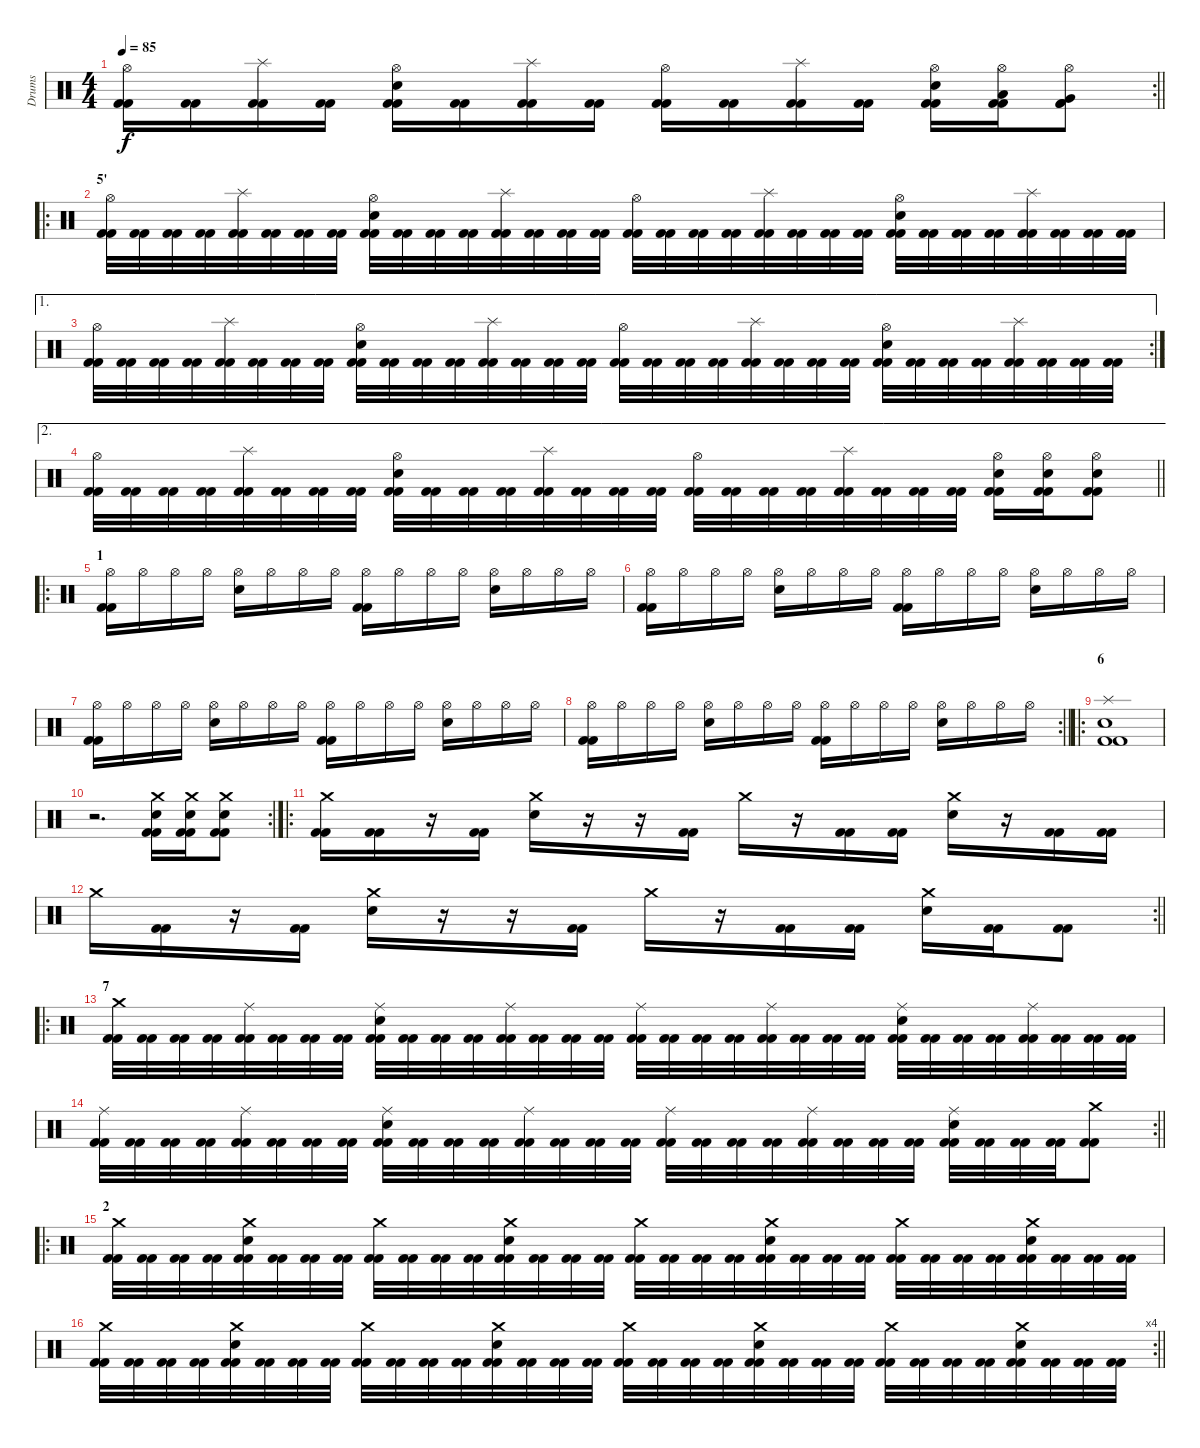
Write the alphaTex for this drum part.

\track ("Drums" "Drums") {instrument percussion}
\staff {score}
\articulation defaults
\rc 2
\ts (4 4)
\tempo 85
\clef neutral
\barLineRight lightlight
\ks c
("Hi-Hat (open)" "Kick (hit) 2" "Kick (hit) 2").16{dy f} ("Kick (hit) 2" "Kick (hit) 2").16 ("Splash (hit)" "Kick (hit) 2" "Kick (hit) 2").16 ("Kick (hit) 2" "Kick (hit) 2").16 ("Hi-Hat (open)" "Snare (hit) 2" "Kick (hit) 2" "Kick (hit) 2").16 ("Kick (hit) 2" "Kick (hit) 2").16 ("Splash (hit)" "Kick (hit) 2" "Kick (hit) 2").16 ("Kick (hit) 2" "Kick (hit) 2").16 ("Hi-Hat (open)" "Kick (hit) 2" "Kick (hit) 2").16 ("Kick (hit) 2" "Kick (hit) 2").16 ("Splash (hit)" "Kick (hit) 2" "Kick (hit) 2").16 ("Kick (hit) 2" "Kick (hit) 2").16 ("Hi-Hat (open)" "Snare (hit) 2" "Kick (hit) 2" "Kick (hit) 2").16 ("Hi-Hat (open)" "Low Tom (hit)" "Kick (hit) 2" "Kick (hit) 2").16 ("Hi-Hat (open)" "Very Low Tom (hit)" "Kick (hit) 2" "Kick (hit) 2").8 |
\ro
\section ("" "5'")
("Hi-Hat (open)" "Kick (hit) 2" "Kick (hit) 2").32 ("Kick (hit) 2" "Kick (hit) 2").32 ("Kick (hit) 2" "Kick (hit) 2").32 ("Kick (hit) 2" "Kick (hit) 2").32 ("Splash (hit)" "Kick (hit) 2" "Kick (hit) 2").32 ("Kick (hit) 2" "Kick (hit) 2").32 ("Kick (hit) 2" "Kick (hit) 2").32 ("Kick (hit) 2" "Kick (hit) 2").32 ("Snare (hit) 2" "Hi-Hat (open)" "Kick (hit) 2" "Kick (hit) 2").32 ("Kick (hit) 2" "Kick (hit) 2").32 ("Kick (hit) 2" "Kick (hit) 2").32 ("Kick (hit) 2" "Kick (hit) 2").32 ("Splash (hit)" "Kick (hit) 2" "Kick (hit) 2").32 ("Kick (hit) 2" "Kick (hit) 2").32 ("Kick (hit) 2" "Kick (hit) 2").32 ("Kick (hit) 2" "Kick (hit) 2").32 ("Hi-Hat (open)" "Kick (hit) 2" "Kick (hit) 2").32 ("Kick (hit) 2" "Kick (hit) 2").32 ("Kick (hit) 2" "Kick (hit) 2").32 ("Kick (hit) 2" "Kick (hit) 2").32 ("Splash (hit)" "Kick (hit) 2" "Kick (hit) 2").32 ("Kick (hit) 2" "Kick (hit) 2").32 ("Kick (hit) 2" "Kick (hit) 2").32 ("Kick (hit) 2" "Kick (hit) 2").32 ("Snare (hit) 2" "Hi-Hat (open)" "Kick (hit) 2" "Kick (hit) 2").32 ("Kick (hit) 2" "Kick (hit) 2").32 ("Kick (hit) 2" "Kick (hit) 2").32 ("Kick (hit) 2" "Kick (hit) 2").32 ("Splash (hit)" "Kick (hit) 2" "Kick (hit) 2").32 ("Kick (hit) 2" "Kick (hit) 2").32 ("Kick (hit) 2" "Kick (hit) 2").32 ("Kick (hit) 2" "Kick (hit) 2").32 |
\ae 1
\rc 2
("Hi-Hat (open)" "Kick (hit) 2" "Kick (hit) 2").32 ("Kick (hit) 2" "Kick (hit) 2").32 ("Kick (hit) 2" "Kick (hit) 2").32 ("Kick (hit) 2" "Kick (hit) 2").32 ("Splash (hit)" "Kick (hit) 2" "Kick (hit) 2").32 ("Kick (hit) 2" "Kick (hit) 2").32 ("Kick (hit) 2" "Kick (hit) 2").32 ("Kick (hit) 2" "Kick (hit) 2").32 ("Snare (hit) 2" "Hi-Hat (open)" "Kick (hit) 2" "Kick (hit) 2").32 ("Kick (hit) 2" "Kick (hit) 2").32 ("Kick (hit) 2" "Kick (hit) 2").32 ("Kick (hit) 2" "Kick (hit) 2").32 ("Splash (hit)" "Kick (hit) 2" "Kick (hit) 2").32 ("Kick (hit) 2" "Kick (hit) 2").32 ("Kick (hit) 2" "Kick (hit) 2").32 ("Kick (hit) 2" "Kick (hit) 2").32 ("Hi-Hat (open)" "Kick (hit) 2" "Kick (hit) 2").32 ("Kick (hit) 2" "Kick (hit) 2").32 ("Kick (hit) 2" "Kick (hit) 2").32 ("Kick (hit) 2" "Kick (hit) 2").32 ("Splash (hit)" "Kick (hit) 2" "Kick (hit) 2").32 ("Kick (hit) 2" "Kick (hit) 2").32 ("Kick (hit) 2" "Kick (hit) 2").32 ("Kick (hit) 2" "Kick (hit) 2").32 ("Snare (hit) 2" "Hi-Hat (open)" "Kick (hit) 2" "Kick (hit) 2").32 ("Kick (hit) 2" "Kick (hit) 2").32 ("Kick (hit) 2" "Kick (hit) 2").32 ("Kick (hit) 2" "Kick (hit) 2").32 ("Splash (hit)" "Kick (hit) 2" "Kick (hit) 2").32 ("Kick (hit) 2" "Kick (hit) 2").32 ("Kick (hit) 2" "Kick (hit) 2").32 ("Kick (hit) 2" "Kick (hit) 2").32 |
\ae 2
\barLineRight lightlight
("Hi-Hat (open)" "Kick (hit) 2" "Kick (hit) 2").32 ("Kick (hit) 2" "Kick (hit) 2").32 ("Kick (hit) 2" "Kick (hit) 2").32 ("Kick (hit) 2" "Kick (hit) 2").32 ("Splash (hit)" "Kick (hit) 2" "Kick (hit) 2").32 ("Kick (hit) 2" "Kick (hit) 2").32 ("Kick (hit) 2" "Kick (hit) 2").32 ("Kick (hit) 2" "Kick (hit) 2").32 ("Snare (hit) 2" "Hi-Hat (open)" "Kick (hit) 2" "Kick (hit) 2").32 ("Kick (hit) 2" "Kick (hit) 2").32 ("Kick (hit) 2" "Kick (hit) 2").32 ("Kick (hit) 2" "Kick (hit) 2").32 ("Splash (hit)" "Kick (hit) 2" "Kick (hit) 2").32 ("Kick (hit) 2" "Kick (hit) 2").32 ("Kick (hit) 2" "Kick (hit) 2").32 ("Kick (hit) 2" "Kick (hit) 2").32 ("Hi-Hat (open)" "Kick (hit) 2" "Kick (hit) 2").32 ("Kick (hit) 2" "Kick (hit) 2").32 ("Kick (hit) 2" "Kick (hit) 2").32 ("Kick (hit) 2" "Kick (hit) 2").32 ("Splash (hit)" "Kick (hit) 2" "Kick (hit) 2").32 ("Kick (hit) 2" "Kick (hit) 2").32 ("Kick (hit) 2" "Kick (hit) 2").32 ("Kick (hit) 2" "Kick (hit) 2").32 ("Snare (hit) 2" "Hi-Hat (open)" "Kick (hit) 2" "Kick (hit) 2").16 ("Snare (hit) 2" "Hi-Hat (open)" "Kick (hit) 2" "Kick (hit) 2").16 ("Snare (hit) 2" "Hi-Hat (open)" "Kick (hit) 2" "Kick (hit) 2").8 |
\ro
\section ("" "1")
("Kick (hit) 2" "Kick (hit) 2" "Hi-Hat (open)").16 "Hi-Hat (open)".16 "Hi-Hat (open)".16 "Hi-Hat (open)".16 ("Snare (hit) 2" "Hi-Hat (open)").16 "Hi-Hat (open)".16 "Hi-Hat (open)".16 "Hi-Hat (open)".16 ("Kick (hit) 2" "Kick (hit) 2" "Hi-Hat (open)").16 "Hi-Hat (open)".16 "Hi-Hat (open)".16 "Hi-Hat (open)".16 ("Snare (hit) 2" "Hi-Hat (open)").16 "Hi-Hat (open)".16 "Hi-Hat (open)".16 "Hi-Hat (open)".16 |
("Kick (hit) 2" "Kick (hit) 2" "Hi-Hat (open)").16 "Hi-Hat (open)".16 "Hi-Hat (open)".16 "Hi-Hat (open)".16 ("Snare (hit) 2" "Hi-Hat (open)").16 "Hi-Hat (open)".16 "Hi-Hat (open)".16 "Hi-Hat (open)".16 ("Kick (hit) 2" "Kick (hit) 2" "Hi-Hat (open)").16 "Hi-Hat (open)".16 "Hi-Hat (open)".16 "Hi-Hat (open)".16 ("Snare (hit) 2" "Hi-Hat (open)").16 "Hi-Hat (open)".16 "Hi-Hat (open)".16 "Hi-Hat (open)".16 |
("Kick (hit) 2" "Kick (hit) 2" "Hi-Hat (open)").16 "Hi-Hat (open)".16 "Hi-Hat (open)".16 "Hi-Hat (open)".16 ("Snare (hit) 2" "Hi-Hat (open)").16 "Hi-Hat (open)".16 "Hi-Hat (open)".16 "Hi-Hat (open)".16 ("Kick (hit) 2" "Kick (hit) 2" "Hi-Hat (open)").16 "Hi-Hat (open)".16 "Hi-Hat (open)".16 "Hi-Hat (open)".16 ("Snare (hit) 2" "Hi-Hat (open)").16 "Hi-Hat (open)".16 "Hi-Hat (open)".16 "Hi-Hat (open)".16 |
\rc 2
\barLineRight lightlight
("Kick (hit) 2" "Kick (hit) 2" "Hi-Hat (open)").16 "Hi-Hat (open)".16 "Hi-Hat (open)".16 "Hi-Hat (open)".16 ("Snare (hit) 2" "Hi-Hat (open)").16 "Hi-Hat (open)".16 "Hi-Hat (open)".16 "Hi-Hat (open)".16 ("Kick (hit) 2" "Kick (hit) 2" "Hi-Hat (open)").16 "Hi-Hat (open)".16 "Hi-Hat (open)".16 "Hi-Hat (open)".16 ("Snare (hit) 2" "Hi-Hat (open)").16 "Hi-Hat (open)".16 "Hi-Hat (open)".16 "Hi-Hat (open)".16 |
\ro
\section ("" "6")
("Splash (hit)" "Snare (hit) 2" "Kick (hit) 2" "Kick (hit) 2").1 |
\rc 2
r.2{d} ("Crash medium (hit)" "Snare (hit) 2" "Kick (hit) 2" "Kick (hit) 2").16 ("Crash medium (hit)" "Snare (hit) 2" "Kick (hit) 2" "Kick (hit) 2").16 ("Crash medium (hit)" "Snare (hit) 2" "Kick (hit) 2" "Kick (hit) 2").8 |
\ro
("Crash medium (hit)" "Kick (hit) 2" "Kick (hit) 2").16 ("Kick (hit) 2" "Kick (hit) 2").16 r.16 ("Kick (hit) 2" "Kick (hit) 2").16 ("Crash medium (hit)" "Snare (hit) 2").16 r.16 r.16 ("Kick (hit) 2" "Kick (hit) 2").16 "Crash medium (hit)".16 r.16 ("Kick (hit) 2" "Kick (hit) 2").16 ("Kick (hit) 2" "Kick (hit) 2").16 ("Crash medium (hit)" "Snare (hit) 2").16 r.16 ("Kick (hit) 2" "Kick (hit) 2").16 ("Kick (hit) 2" "Kick (hit) 2").16 |
\rc 2
\barLineRight lightlight "Crash medium (hit)".16
("Kick (hit) 2" "Kick (hit) 2").16 r.16 ("Kick (hit) 2" "Kick (hit) 2").16 ("Crash medium (hit)" "Snare (hit) 2").16 r.16 r.16 ("Kick (hit) 2" "Kick (hit) 2").16 "Crash medium (hit)".16 r.16 ("Kick (hit) 2" "Kick (hit) 2").16 ("Kick (hit) 2" "Kick (hit) 2").16 ("Crash medium (hit)" "Snare (hit) 2").16 ("Kick (hit) 2" "Kick (hit) 2").16 ("Kick (hit) 2" "Kick (hit) 2").8 |
\ro
\section ("" "7")
("Crash medium (hit)" "Kick (hit) 2" "Kick (hit) 2").32 ("Kick (hit) 2" "Kick (hit) 2").32 ("Kick (hit) 2" "Kick (hit) 2").32 ("Kick (hit) 2" "Kick (hit) 2").32 ("Ride (middle)" "Kick (hit) 2" "Kick (hit) 2").32 ("Kick (hit) 2" "Kick (hit) 2").32 ("Kick (hit) 2" "Kick (hit) 2").32 ("Kick (hit) 2" "Kick (hit) 2").32 ("Ride (middle)" "Snare (hit) 2" "Kick (hit) 2" "Kick (hit) 2").32 ("Kick (hit) 2" "Kick (hit) 2").32 ("Kick (hit) 2" "Kick (hit) 2").32 ("Kick (hit) 2" "Kick (hit) 2").32 ("Ride (middle)" "Kick (hit) 2" "Kick (hit) 2").32 ("Kick (hit) 2" "Kick (hit) 2").32 ("Kick (hit) 2" "Kick (hit) 2").32 ("Kick (hit) 2" "Kick (hit) 2").32 ("Ride (middle)" "Kick (hit) 2" "Kick (hit) 2").32 ("Kick (hit) 2" "Kick (hit) 2").32 ("Kick (hit) 2" "Kick (hit) 2").32 ("Kick (hit) 2" "Kick (hit) 2").32 ("Ride (middle)" "Kick (hit) 2" "Kick (hit) 2").32 ("Kick (hit) 2" "Kick (hit) 2").32 ("Kick (hit) 2" "Kick (hit) 2").32 ("Kick (hit) 2" "Kick (hit) 2").32 ("Ride (middle)" "Snare (hit) 2" "Kick (hit) 2" "Kick (hit) 2").32 ("Kick (hit) 2" "Kick (hit) 2").32 ("Kick (hit) 2" "Kick (hit) 2").32 ("Kick (hit) 2" "Kick (hit) 2").32 ("Ride (middle)" "Kick (hit) 2" "Kick (hit) 2").32 ("Kick (hit) 2" "Kick (hit) 2").32 ("Kick (hit) 2" "Kick (hit) 2").32 ("Kick (hit) 2" "Kick (hit) 2").32 |
\rc 2
\barLineRight lightlight
("Ride (middle)" "Kick (hit) 2" "Kick (hit) 2").32 ("Kick (hit) 2" "Kick (hit) 2").32 ("Kick (hit) 2" "Kick (hit) 2").32 ("Kick (hit) 2" "Kick (hit) 2").32 ("Ride (middle)" "Kick (hit) 2" "Kick (hit) 2").32 ("Kick (hit) 2" "Kick (hit) 2").32 ("Kick (hit) 2" "Kick (hit) 2").32 ("Kick (hit) 2" "Kick (hit) 2").32 ("Ride (middle)" "Snare (hit) 2" "Kick (hit) 2" "Kick (hit) 2").32 ("Kick (hit) 2" "Kick (hit) 2").32 ("Kick (hit) 2" "Kick (hit) 2").32 ("Kick (hit) 2" "Kick (hit) 2").32 ("Ride (middle)" "Kick (hit) 2" "Kick (hit) 2").32 ("Kick (hit) 2" "Kick (hit) 2").32 ("Kick (hit) 2" "Kick (hit) 2").32 ("Kick (hit) 2" "Kick (hit) 2").32 ("Ride (middle)" "Kick (hit) 2" "Kick (hit) 2").32 ("Kick (hit) 2" "Kick (hit) 2").32 ("Kick (hit) 2" "Kick (hit) 2").32 ("Kick (hit) 2" "Kick (hit) 2").32 ("Ride (middle)" "Kick (hit) 2" "Kick (hit) 2").32 ("Kick (hit) 2" "Kick (hit) 2").32 ("Kick (hit) 2" "Kick (hit) 2").32 ("Kick (hit) 2" "Kick (hit) 2").32 ("Ride (middle)" "Snare (hit) 2" "Kick (hit) 2" "Kick (hit) 2").32 ("Kick (hit) 2" "Kick (hit) 2").32 ("Kick (hit) 2" "Kick (hit) 2").32 ("Kick (hit) 2" "Kick (hit) 2").32 ("Crash medium (hit)" "Kick (hit) 2" "Kick (hit) 2").8 |
\ro
\section ("" "2")
("Crash medium (hit)" "Kick (hit) 2" "Kick (hit) 2").32 ("Kick (hit) 2" "Kick (hit) 2").32 ("Kick (hit) 2" "Kick (hit) 2").32 ("Kick (hit) 2" "Kick (hit) 2").32 ("Crash medium (hit)" "Snare (hit) 2" "Kick (hit) 2" "Kick (hit) 2").32 ("Kick (hit) 2" "Kick (hit) 2").32 ("Kick (hit) 2" "Kick (hit) 2").32 ("Kick (hit) 2" "Kick (hit) 2").32 ("Crash medium (hit)" "Kick (hit) 2" "Kick (hit) 2").32 ("Kick (hit) 2" "Kick (hit) 2").32 ("Kick (hit) 2" "Kick (hit) 2").32 ("Kick (hit) 2" "Kick (hit) 2").32 ("Crash medium (hit)" "Snare (hit) 2" "Kick (hit) 2" "Kick (hit) 2").32 ("Kick (hit) 2" "Kick (hit) 2").32 ("Kick (hit) 2" "Kick (hit) 2").32 ("Kick (hit) 2" "Kick (hit) 2").32 ("Crash medium (hit)" "Kick (hit) 2" "Kick (hit) 2").32 ("Kick (hit) 2" "Kick (hit) 2").32 ("Kick (hit) 2" "Kick (hit) 2").32 ("Kick (hit) 2" "Kick (hit) 2").32 ("Crash medium (hit)" "Snare (hit) 2" "Kick (hit) 2" "Kick (hit) 2").32 ("Kick (hit) 2" "Kick (hit) 2").32 ("Kick (hit) 2" "Kick (hit) 2").32 ("Kick (hit) 2" "Kick (hit) 2").32 ("Crash medium (hit)" "Kick (hit) 2" "Kick (hit) 2").32 ("Kick (hit) 2" "Kick (hit) 2").32 ("Kick (hit) 2" "Kick (hit) 2").32 ("Kick (hit) 2" "Kick (hit) 2").32 ("Crash medium (hit)" "Snare (hit) 2" "Kick (hit) 2" "Kick (hit) 2").32 ("Kick (hit) 2" "Kick (hit) 2").32 ("Kick (hit) 2" "Kick (hit) 2").32 ("Kick (hit) 2" "Kick (hit) 2").32 |
\rc 4
\barLineRight lightlight
("Crash medium (hit)" "Kick (hit) 2" "Kick (hit) 2").32 ("Kick (hit) 2" "Kick (hit) 2").32 ("Kick (hit) 2" "Kick (hit) 2").32 ("Kick (hit) 2" "Kick (hit) 2").32 ("Crash medium (hit)" "Snare (hit) 2" "Kick (hit) 2" "Kick (hit) 2").32 ("Kick (hit) 2" "Kick (hit) 2").32 ("Kick (hit) 2" "Kick (hit) 2").32 ("Kick (hit) 2" "Kick (hit) 2").32 ("Crash medium (hit)" "Kick (hit) 2" "Kick (hit) 2").32 ("Kick (hit) 2" "Kick (hit) 2").32 ("Kick (hit) 2" "Kick (hit) 2").32 ("Kick (hit) 2" "Kick (hit) 2").32 ("Crash medium (hit)" "Snare (hit) 2" "Kick (hit) 2" "Kick (hit) 2").32 ("Kick (hit) 2" "Kick (hit) 2").32 ("Kick (hit) 2" "Kick (hit) 2").32 ("Kick (hit) 2" "Kick (hit) 2").32 ("Crash medium (hit)" "Kick (hit) 2" "Kick (hit) 2").32 ("Kick (hit) 2" "Kick (hit) 2").32 ("Kick (hit) 2" "Kick (hit) 2").32 ("Kick (hit) 2" "Kick (hit) 2").32 ("Crash medium (hit)" "Snare (hit) 2" "Kick (hit) 2" "Kick (hit) 2").32 ("Kick (hit) 2" "Kick (hit) 2").32 ("Kick (hit) 2" "Kick (hit) 2").32 ("Kick (hit) 2" "Kick (hit) 2").32 ("Crash medium (hit)" "Kick (hit) 2" "Kick (hit) 2").32 ("Kick (hit) 2" "Kick (hit) 2").32 ("Kick (hit) 2" "Kick (hit) 2").32 ("Kick (hit) 2" "Kick (hit) 2").32 ("Crash medium (hit)" "Snare (hit) 2" "Kick (hit) 2" "Kick (hit) 2").32 ("Kick (hit) 2" "Kick (hit) 2").32 ("Kick (hit) 2" "Kick (hit) 2").32 ("Kick (hit) 2" "Kick (hit) 2").32
